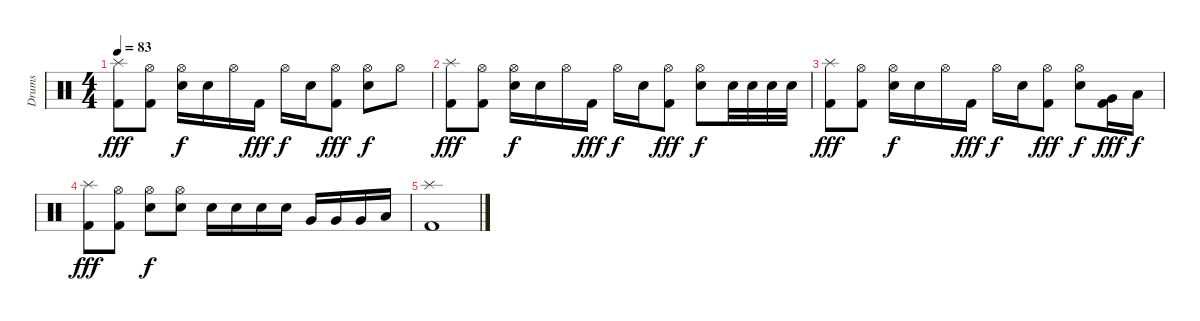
\track ("Drums" "Drums") {instrument percussion}
\staff {score}
\articulation defaults
\ts (4 4)
\tempo 83
\clef neutral
\ks c
("Splash (hit)" "Kick (hit) 2").8{dy fff} ("Hi-Hat (open)" "Kick (hit) 2").8 ("Hi-Hat (open)" "Snare (hit) 2").16{dy f} "Snare (hit) 2".16 "Hi-Hat (open)".16 "Kick (hit) 2".16{dy fff} "Hi-Hat (open)".16{dy f} "Snare (hit) 2".16 ("Hi-Hat (open)" "Kick (hit) 2").8{dy fff} ("Hi-Hat (open)" "Snare (hit) 2").8{dy f} "Hi-Hat (open)".8 |
("Splash (hit)" "Kick (hit) 2").8{dy fff} ("Hi-Hat (open)" "Kick (hit) 2").8 ("Hi-Hat (open)" "Snare (hit) 2").16{dy f} "Snare (hit) 2".16 "Hi-Hat (open)".16 "Kick (hit) 2".16{dy fff} "Hi-Hat (open)".16{dy f} "Snare (hit) 2".16 ("Hi-Hat (open)" "Kick (hit) 2").8{dy fff} ("Hi-Hat (open)" "Snare (hit) 2").8{dy f} "Snare (hit) 2".32 "Snare (hit) 2".32 "Snare (hit) 2".32 "Snare (hit) 2".32 |
("Splash (hit)" "Kick (hit) 2").8{dy fff} ("Hi-Hat (open)" "Kick (hit) 2").8 ("Hi-Hat (open)" "Snare (hit) 2").16{dy f} "Snare (hit) 2".16 "Hi-Hat (open)".16 "Kick (hit) 2".16{dy fff} "Hi-Hat (open)".16{dy f} "Snare (hit) 2".16 ("Hi-Hat (open)" "Kick (hit) 2").8{dy fff} ("Hi-Hat (open)" "Snare (hit) 2").8{dy f} ("Very Low Tom (hit)" "Kick (hit) 2").16{dy fff} "Low Floor Tom (hit)".16{dy f} |
("Splash (hit)" "Kick (hit) 2").8{dy fff} ("Hi-Hat (open)" "Kick (hit) 2").8 ("Hi-Hat (open)" "Snare (hit) 2").8{dy f} ("Hi-Hat (open)" "Snare (hit) 2").8 "Snare (hit) 2".16 "Snare (hit) 2".16 "Snare (hit) 2".16 "Snare (hit) 2".16 "Very Low Tom (hit)".16 "Very Low Tom (hit)".16 "Very Low Tom (hit)".16 "Low Floor Tom (hit)".16 |
("Splash (hit)" "Kick (hit) 2").1
